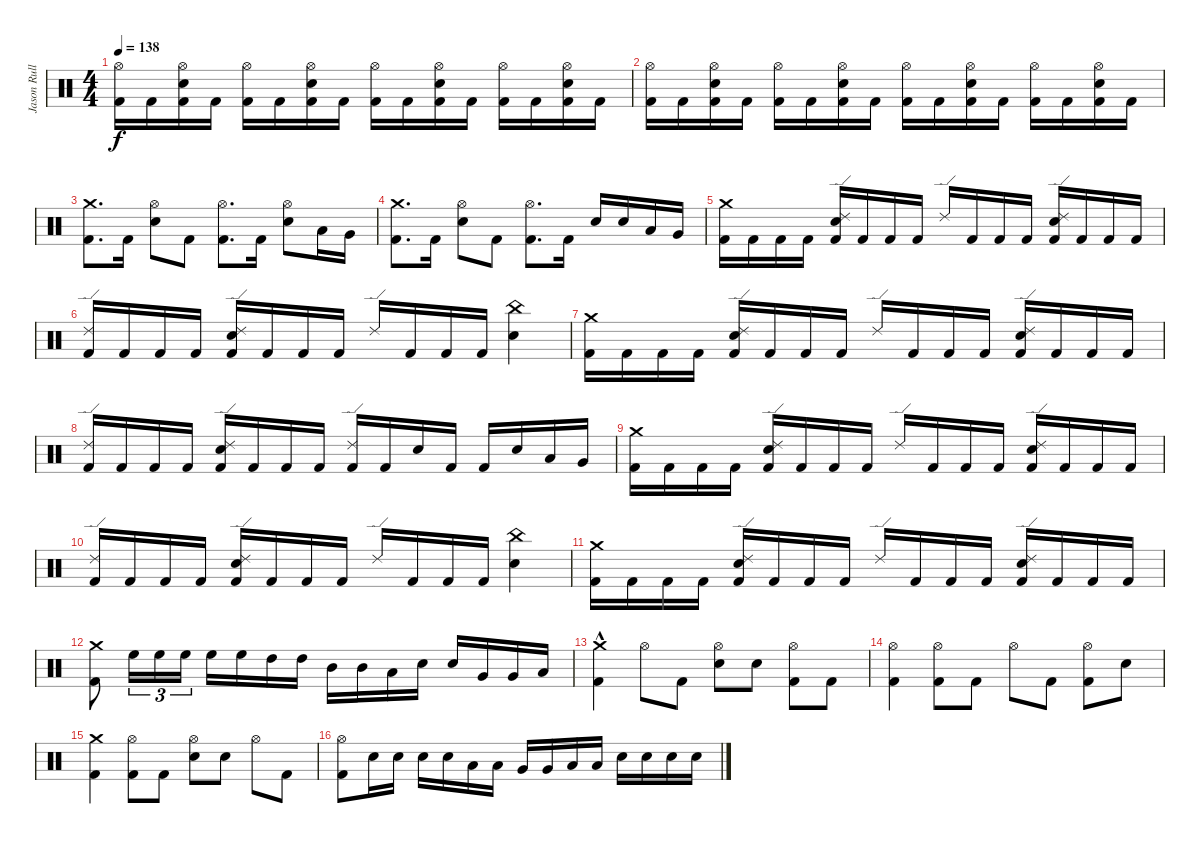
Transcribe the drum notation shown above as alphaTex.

\track ("Jason Rullo" "Jason Rull") {instrument percussion}
\staff {score}
\articulation defaults
\ts (4 4)
\tempo 138
\clef neutral
\ks c
("Hi-Hat (open)" "Kick (hit) 2").16{dy f} "Kick (hit) 2".16 ("Hi-Hat (open)" "Electric Snare (hit)" "Kick (hit) 2").16 "Kick (hit) 2".16 ("Hi-Hat (open)" "Kick (hit) 2").16 "Kick (hit) 2".16 ("Hi-Hat (open)" "Electric Snare (hit)" "Kick (hit) 2").16 "Kick (hit) 2".16 ("Hi-Hat (open)" "Kick (hit) 2").16 "Kick (hit) 2".16 ("Hi-Hat (open)" "Electric Snare (hit)" "Kick (hit) 2").16 "Kick (hit) 2".16 ("Hi-Hat (open)" "Kick (hit) 2").16 "Kick (hit) 2".16 ("Hi-Hat (open)" "Electric Snare (hit)" "Kick (hit) 2").16 "Kick (hit) 2".16 |
("Hi-Hat (open)" "Kick (hit) 2").16 "Kick (hit) 2".16 ("Hi-Hat (open)" "Electric Snare (hit)" "Kick (hit) 2").16 "Kick (hit) 2".16 ("Hi-Hat (open)" "Kick (hit) 2").16 "Kick (hit) 2".16 ("Hi-Hat (open)" "Electric Snare (hit)" "Kick (hit) 2").16 "Kick (hit) 2".16 ("Hi-Hat (open)" "Kick (hit) 2").16 "Kick (hit) 2".16 ("Hi-Hat (open)" "Electric Snare (hit)" "Kick (hit) 2").16 "Kick (hit) 2".16 ("Hi-Hat (open)" "Kick (hit) 2").16 "Kick (hit) 2".16 ("Hi-Hat (open)" "Electric Snare (hit)" "Kick (hit) 2").16 "Kick (hit) 2".16 |
("Crash medium (hit)" "Kick (hit) 2").8{d} "Kick (hit) 2".16 ("Hi-Hat (open)" "Electric Snare (hit)").8 "Kick (hit) 2".8 ("Hi-Hat (open)" "Kick (hit) 2").8{d} "Kick (hit) 2".16 ("Hi-Hat (open)" "Electric Snare (hit)").8 "Low Tom (hit)".16 "Very Low Tom (hit)".16 |
("Crash medium (hit)" "Kick (hit) 2").8{d} "Kick (hit) 2".16 ("Hi-Hat (open)" "Electric Snare (hit)").8 "Kick (hit) 2".8 ("Hi-Hat (open)" "Kick (hit) 2").8{d} "Kick (hit) 2".16 "Electric Snare (hit)".16 "Electric Snare (hit)".16 "Low Tom (hit)".16 "Very Low Tom (hit)".16 |
("Kick (hit) 2" "Crash medium (hit)").16 "Kick (hit) 2".16 "Kick (hit) 2".16 "Kick (hit) 2".16 ("Electric Snare (hit)" "Kick (hit) 2" "Ride (edge) 2").16 "Kick (hit) 2".16 "Kick (hit) 2".16 "Kick (hit) 2".16 "Ride (edge) 2".16 "Kick (hit) 2".16 "Kick (hit) 2".16 "Kick (hit) 2".16 ("Electric Snare (hit)" "Kick (hit) 2" "Ride (edge) 2").16 "Kick (hit) 2".16 "Kick (hit) 2".16 "Kick (hit) 2".16 |
("Kick (hit) 2" "Ride (edge) 2").16 "Kick (hit) 2".16 "Kick (hit) 2".16 "Kick (hit) 2".16 ("Electric Snare (hit)" "Kick (hit) 2" "Ride (edge) 2").16 "Kick (hit) 2".16 "Kick (hit) 2".16 "Kick (hit) 2".16 "Ride (edge) 2".16 "Kick (hit) 2".16 "Kick (hit) 2".16 "Kick (hit) 2".16 ("China (hit)" "Electric Snare (hit)").4 |
("Kick (hit) 2" "Crash medium (hit)").16 "Kick (hit) 2".16 "Kick (hit) 2".16 "Kick (hit) 2".16 ("Electric Snare (hit)" "Kick (hit) 2" "Ride (edge) 2").16 "Kick (hit) 2".16 "Kick (hit) 2".16 "Kick (hit) 2".16 "Ride (edge) 2".16 "Kick (hit) 2".16 "Kick (hit) 2".16 "Kick (hit) 2".16 ("Electric Snare (hit)" "Kick (hit) 2" "Ride (edge) 2").16 "Kick (hit) 2".16 "Kick (hit) 2".16 "Kick (hit) 2".16 |
("Ride (edge) 2" "Kick (hit) 2").16 "Kick (hit) 2".16 "Kick (hit) 2".16 "Kick (hit) 2".16 ("Electric Snare (hit)" "Ride (edge) 2" "Kick (hit) 2").16 "Kick (hit) 2".16 "Kick (hit) 2".16 "Kick (hit) 2".16 ("Ride (edge) 2" "Kick (hit) 2").16 "Kick (hit) 2".16 "Electric Snare (hit)".16 "Kick (hit) 2".16 "Kick (hit) 2".16 "Electric Snare (hit)".16 "Low Tom (hit)".16 "Very Low Tom (hit)".16 |
("Kick (hit) 2" "Crash medium (hit)").16 "Kick (hit) 2".16 "Kick (hit) 2".16 "Kick (hit) 2".16 ("Electric Snare (hit)" "Kick (hit) 2" "Ride (edge) 2").16 "Kick (hit) 2".16 "Kick (hit) 2".16 "Kick (hit) 2".16 "Ride (edge) 2".16 "Kick (hit) 2".16 "Kick (hit) 2".16 "Kick (hit) 2".16 ("Electric Snare (hit)" "Kick (hit) 2" "Ride (edge) 2").16 "Kick (hit) 2".16 "Kick (hit) 2".16 "Kick (hit) 2".16 |
("Kick (hit) 2" "Ride (edge) 2").16 "Kick (hit) 2".16 "Kick (hit) 2".16 "Kick (hit) 2".16 ("Electric Snare (hit)" "Kick (hit) 2" "Ride (edge) 2").16 "Kick (hit) 2".16 "Kick (hit) 2".16 "Kick (hit) 2".16 "Ride (edge) 2".16 "Kick (hit) 2".16 "Kick (hit) 2".16 "Kick (hit) 2".16 ("China (hit)" "Electric Snare (hit)").4 |
("Kick (hit) 2" "Crash medium (hit)").16 "Kick (hit) 2".16 "Kick (hit) 2".16 "Kick (hit) 2".16 ("Electric Snare (hit)" "Kick (hit) 2" "Ride (edge) 2").16 "Kick (hit) 2".16 "Kick (hit) 2".16 "Kick (hit) 2".16 "Ride (edge) 2".16 "Kick (hit) 2".16 "Kick (hit) 2".16 "Kick (hit) 2".16 ("Electric Snare (hit)" "Kick (hit) 2" "Ride (edge) 2").16 "Kick (hit) 2".16 "Kick (hit) 2".16 "Kick (hit) 2".16 |
("Crash medium (hit)" "Kick (hit) 2").8 "High Floor Tom (hit)".16{tu (3 2)} "High Floor Tom (hit)".16{tu (3 2)} "High Floor Tom (hit)".16{tu (3 2)} "High Floor Tom (hit)".16 "High Floor Tom (hit)".16 "High Tom (hit)".16 "High Tom (hit)".16 "Mid Tom (hit)".16 "Mid Tom (hit)".16 "Low Tom (hit)".16 "Electric Snare (hit)".16 "Electric Snare (hit)".16 "Very Low Tom (hit)".16 "Very Low Tom (hit)".16 "Low Floor Tom (hit)".16 |
("Crash medium (hit)" "Kick (hit) 2"{hac}).4 "Hi-Hat (open)".8 "Kick (hit) 2".8 ("Hi-Hat (open)" "Electric Snare (hit)").8 "Electric Snare (hit)".8 ("Kick (hit) 2" "Hi-Hat (open)").8 "Kick (hit) 2".8 |
("Hi-Hat (open)" "Kick (hit) 2").4 ("Hi-Hat (open)" "Kick (hit) 2").8 "Kick (hit) 2".8 "Hi-Hat (open)".8 "Kick (hit) 2".8 ("Hi-Hat (open)" "Kick (hit) 2").8 "Electric Snare (hit)".8 |
("Crash medium (hit)" "Kick (hit) 2").4 ("Hi-Hat (open)" "Kick (hit) 2").8 "Kick (hit) 2".8 ("Hi-Hat (open)" "Electric Snare (hit)").8 "Electric Snare (hit)".8 "Hi-Hat (open)".8 "Kick (hit) 2".8 |
("Hi-Hat (open)" "Kick (hit) 2").8 "Electric Snare (hit)".16 "Electric Snare (hit)".16 "Electric Snare (hit)".16 "Electric Snare (hit)".16 "Low Tom (hit)".16 "Low Tom (hit)".16 "Very Low Tom (hit)".16 "Very Low Tom (hit)".16 "Low Floor Tom (hit)".16 "Low Floor Tom (hit)".16 "Electric Snare (hit)".16 "Electric Snare (hit)".16 "Electric Snare (hit)".16 "Electric Snare (hit)".16
